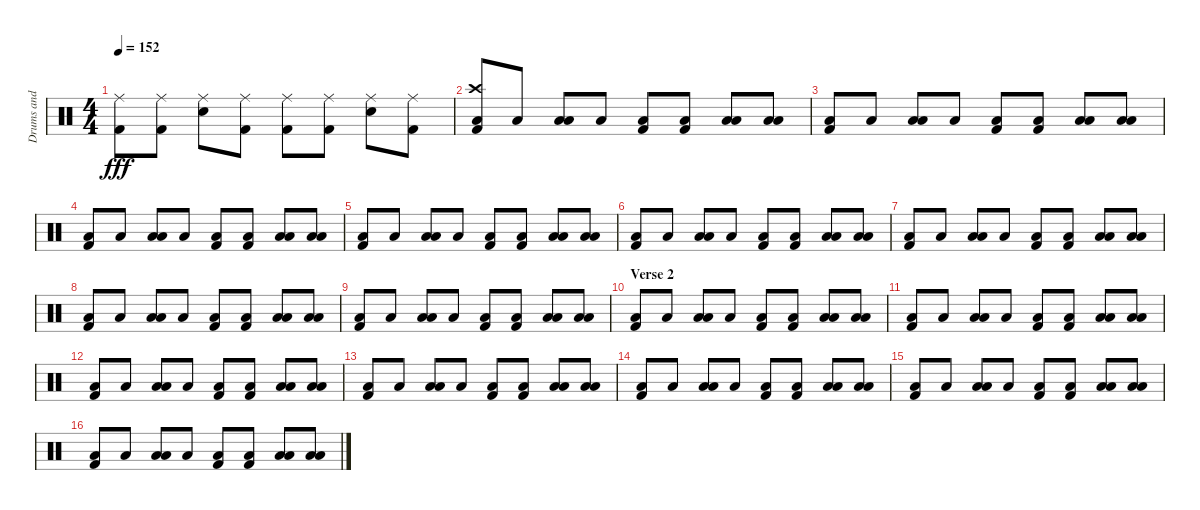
\track ("Drums and Percussion" "Drums and ") {instrument percussion}
\staff {score}
\articulation defaults
\ts (4 4)
\tempo 152
\clef neutral
\ks c
("Ride (middle)" "Kick (hit) 2").8{dy fff} ("Ride (middle)" "Kick (hit) 2").8 ("Ride (middle)" "Snare (hit) 2").8 ("Ride (middle)" "Kick (hit) 2").8 ("Ride (middle)" "Kick (hit) 2").8 ("Ride (middle)" "Kick (hit) 2").8 ("Ride (middle)" "Snare (hit) 2").8 ("Ride (middle)" "Kick (hit) 2").8 |
("Crash high (hit)" "Low Floor Tom (hit)" "Kick (hit) 2").8 "Low Floor Tom (hit)".8 ("Low Tom (hit)" "Low Floor Tom (hit)").8 "Low Floor Tom (hit)".8 ("Low Floor Tom (hit)" "Kick (hit) 2").8 ("Low Floor Tom (hit)" "Kick (hit) 2").8 ("Low Tom (hit)" "Low Floor Tom (hit)").8 ("Low Tom (hit)" "Low Floor Tom (hit)").8 |
("Low Floor Tom (hit)" "Kick (hit) 2").8 "Low Floor Tom (hit)".8 ("Low Tom (hit)" "Low Floor Tom (hit)").8 "Low Floor Tom (hit)".8 ("Low Floor Tom (hit)" "Kick (hit) 2").8 ("Low Floor Tom (hit)" "Kick (hit) 2").8 ("Low Tom (hit)" "Low Floor Tom (hit)").8 ("Low Tom (hit)" "Low Floor Tom (hit)").8 |
("Low Floor Tom (hit)" "Kick (hit) 2").8 "Low Floor Tom (hit)".8 ("Low Tom (hit)" "Low Floor Tom (hit)").8 "Low Floor Tom (hit)".8 ("Low Floor Tom (hit)" "Kick (hit) 2").8 ("Low Floor Tom (hit)" "Kick (hit) 2").8 ("Low Tom (hit)" "Low Floor Tom (hit)").8 ("Low Tom (hit)" "Low Floor Tom (hit)").8 |
("Low Floor Tom (hit)" "Kick (hit) 2").8 "Low Floor Tom (hit)".8 ("Low Tom (hit)" "Low Floor Tom (hit)").8 "Low Floor Tom (hit)".8 ("Low Floor Tom (hit)" "Kick (hit) 2").8 ("Low Floor Tom (hit)" "Kick (hit) 2").8 ("Low Tom (hit)" "Low Floor Tom (hit)").8 ("Low Tom (hit)" "Low Floor Tom (hit)").8 |
("Low Floor Tom (hit)" "Kick (hit) 2").8 "Low Floor Tom (hit)".8 ("Low Tom (hit)" "Low Floor Tom (hit)").8 "Low Floor Tom (hit)".8 ("Low Floor Tom (hit)" "Kick (hit) 2").8 ("Low Floor Tom (hit)" "Kick (hit) 2").8 ("Low Tom (hit)" "Low Floor Tom (hit)").8 ("Low Tom (hit)" "Low Floor Tom (hit)").8 |
("Low Floor Tom (hit)" "Kick (hit) 2").8 "Low Floor Tom (hit)".8 ("Low Tom (hit)" "Low Floor Tom (hit)").8 "Low Floor Tom (hit)".8 ("Low Floor Tom (hit)" "Kick (hit) 2").8 ("Low Floor Tom (hit)" "Kick (hit) 2").8 ("Low Tom (hit)" "Low Floor Tom (hit)").8 ("Low Tom (hit)" "Low Floor Tom (hit)").8 |
("Low Floor Tom (hit)" "Kick (hit) 2").8 "Low Floor Tom (hit)".8 ("Low Tom (hit)" "Low Floor Tom (hit)").8 "Low Floor Tom (hit)".8 ("Low Floor Tom (hit)" "Kick (hit) 2").8 ("Low Floor Tom (hit)" "Kick (hit) 2").8 ("Low Tom (hit)" "Low Floor Tom (hit)").8 ("Low Tom (hit)" "Low Floor Tom (hit)").8 |
("Low Floor Tom (hit)" "Kick (hit) 2").8 "Low Floor Tom (hit)".8 ("Low Tom (hit)" "Low Floor Tom (hit)").8 "Low Floor Tom (hit)".8 ("Low Floor Tom (hit)" "Kick (hit) 2").8 ("Low Floor Tom (hit)" "Kick (hit) 2").8 ("Low Tom (hit)" "Low Floor Tom (hit)").8 ("Low Tom (hit)" "Low Floor Tom (hit)").8 |
\section ("" "Verse 2")
("Low Floor Tom (hit)" "Kick (hit) 2").8 "Low Floor Tom (hit)".8 ("Low Tom (hit)" "Low Floor Tom (hit)").8 "Low Floor Tom (hit)".8 ("Low Floor Tom (hit)" "Kick (hit) 2").8 ("Low Floor Tom (hit)" "Kick (hit) 2").8 ("Low Tom (hit)" "Low Floor Tom (hit)").8 ("Low Tom (hit)" "Low Floor Tom (hit)").8 |
("Low Floor Tom (hit)" "Kick (hit) 2").8 "Low Floor Tom (hit)".8 ("Low Tom (hit)" "Low Floor Tom (hit)").8 "Low Floor Tom (hit)".8 ("Low Floor Tom (hit)" "Kick (hit) 2").8 ("Low Floor Tom (hit)" "Kick (hit) 2").8 ("Low Tom (hit)" "Low Floor Tom (hit)").8 ("Low Tom (hit)" "Low Floor Tom (hit)").8 |
("Low Floor Tom (hit)" "Kick (hit) 2").8 "Low Floor Tom (hit)".8 ("Low Tom (hit)" "Low Floor Tom (hit)").8 "Low Floor Tom (hit)".8 ("Low Floor Tom (hit)" "Kick (hit) 2").8 ("Low Floor Tom (hit)" "Kick (hit) 2").8 ("Low Tom (hit)" "Low Floor Tom (hit)").8 ("Low Tom (hit)" "Low Floor Tom (hit)").8 |
("Low Floor Tom (hit)" "Kick (hit) 2").8 "Low Floor Tom (hit)".8 ("Low Tom (hit)" "Low Floor Tom (hit)").8 "Low Floor Tom (hit)".8 ("Low Floor Tom (hit)" "Kick (hit) 2").8 ("Low Floor Tom (hit)" "Kick (hit) 2").8 ("Low Tom (hit)" "Low Floor Tom (hit)").8 ("Low Tom (hit)" "Low Floor Tom (hit)").8 |
("Low Floor Tom (hit)" "Kick (hit) 2").8 "Low Floor Tom (hit)".8 ("Low Tom (hit)" "Low Floor Tom (hit)").8 "Low Floor Tom (hit)".8 ("Low Floor Tom (hit)" "Kick (hit) 2").8 ("Low Floor Tom (hit)" "Kick (hit) 2").8 ("Low Tom (hit)" "Low Floor Tom (hit)").8 ("Low Tom (hit)" "Low Floor Tom (hit)").8 |
("Low Floor Tom (hit)" "Kick (hit) 2").8 "Low Floor Tom (hit)".8 ("Low Tom (hit)" "Low Floor Tom (hit)").8 "Low Floor Tom (hit)".8 ("Low Floor Tom (hit)" "Kick (hit) 2").8 ("Low Floor Tom (hit)" "Kick (hit) 2").8 ("Low Tom (hit)" "Low Floor Tom (hit)").8 ("Low Tom (hit)" "Low Floor Tom (hit)").8 |
("Low Floor Tom (hit)" "Kick (hit) 2").8 "Low Floor Tom (hit)".8 ("Low Tom (hit)" "Low Floor Tom (hit)").8 "Low Floor Tom (hit)".8 ("Low Floor Tom (hit)" "Kick (hit) 2").8 ("Low Floor Tom (hit)" "Kick (hit) 2").8 ("Low Tom (hit)" "Low Floor Tom (hit)").8 ("Low Tom (hit)" "Low Floor Tom (hit)").8
